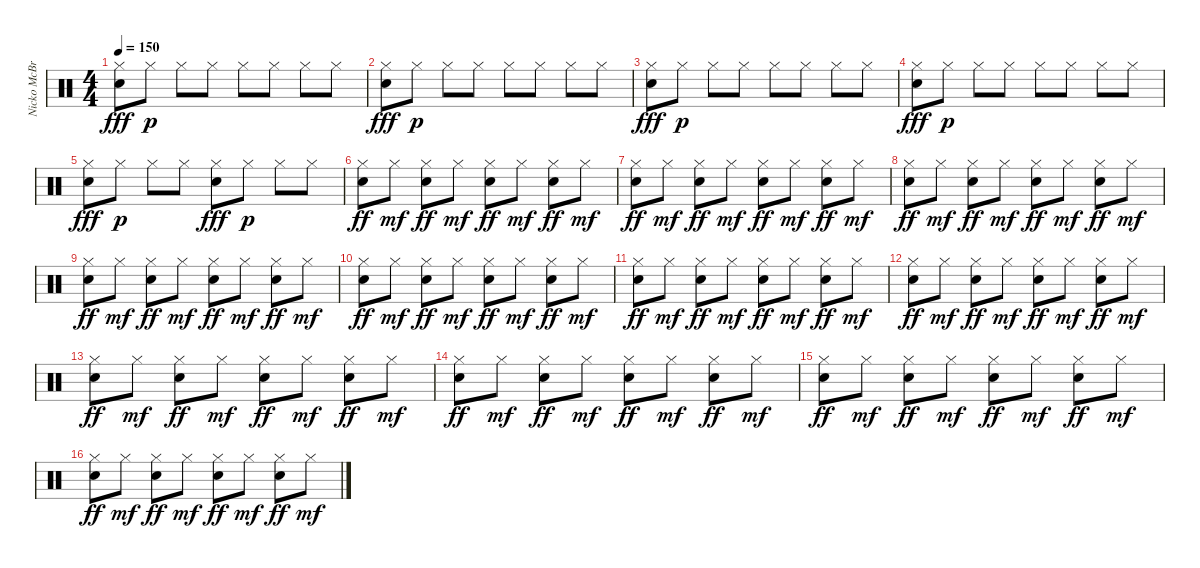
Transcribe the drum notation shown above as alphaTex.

\track ("Nicko McBrain" "Nicko McBr") {instrument percussion}
\staff {score}
\articulation defaults
\ts (4 4)
\tempo 150
\clef neutral
\ks c
("Hi-Hat (closed)" "Snare (hit) 2").8{dy fff} "Hi-Hat (closed)".8{dy p} "Hi-Hat (closed)".8 "Hi-Hat (closed)".8 "Hi-Hat (closed)".8 "Hi-Hat (closed)".8 "Hi-Hat (closed)".8 "Hi-Hat (closed)".8 |
("Hi-Hat (closed)" "Snare (hit) 2").8{dy fff} "Hi-Hat (closed)".8{dy p} "Hi-Hat (closed)".8 "Hi-Hat (closed)".8 "Hi-Hat (closed)".8 "Hi-Hat (closed)".8 "Hi-Hat (closed)".8 "Hi-Hat (closed)".8 |
("Hi-Hat (closed)" "Snare (hit) 2").8{dy fff} "Hi-Hat (closed)".8{dy p} "Hi-Hat (closed)".8 "Hi-Hat (closed)".8 "Hi-Hat (closed)".8 "Hi-Hat (closed)".8 "Hi-Hat (closed)".8 "Hi-Hat (closed)".8 |
("Hi-Hat (closed)" "Snare (hit) 2").8{dy fff} "Hi-Hat (closed)".8{dy p} "Hi-Hat (closed)".8 "Hi-Hat (closed)".8 "Hi-Hat (closed)".8 "Hi-Hat (closed)".8 "Hi-Hat (closed)".8 "Hi-Hat (closed)".8 |
("Hi-Hat (closed)" "Snare (hit) 2").8{dy fff} "Hi-Hat (closed)".8{dy p} "Hi-Hat (closed)".8 "Hi-Hat (closed)".8 ("Hi-Hat (closed)" "Snare (hit) 2").8{dy fff} "Hi-Hat (closed)".8{dy p} "Hi-Hat (closed)".8 "Hi-Hat (closed)".8 |
("Hi-Hat (closed)" "Snare (hit) 2").8{dy ff} "Hi-Hat (closed)".8{dy mf} ("Hi-Hat (closed)" "Snare (hit) 2").8{dy ff} "Hi-Hat (closed)".8{dy mf} ("Hi-Hat (closed)" "Snare (hit) 2").8{dy ff} "Hi-Hat (closed)".8{dy mf} ("Hi-Hat (closed)" "Snare (hit) 2").8{dy ff} "Hi-Hat (closed)".8{dy mf} |
("Hi-Hat (closed)" "Snare (hit) 2").8{dy ff} "Hi-Hat (closed)".8{dy mf} ("Hi-Hat (closed)" "Snare (hit) 2").8{dy ff} "Hi-Hat (closed)".8{dy mf} ("Hi-Hat (closed)" "Snare (hit) 2").8{dy ff} "Hi-Hat (closed)".8{dy mf} ("Hi-Hat (closed)" "Snare (hit) 2").8{dy ff} "Hi-Hat (closed)".8{dy mf} |
("Hi-Hat (closed)" "Snare (hit) 2").8{dy ff} "Hi-Hat (closed)".8{dy mf} ("Hi-Hat (closed)" "Snare (hit) 2").8{dy ff} "Hi-Hat (closed)".8{dy mf} ("Hi-Hat (closed)" "Snare (hit) 2").8{dy ff} "Hi-Hat (closed)".8{dy mf} ("Hi-Hat (closed)" "Snare (hit) 2").8{dy ff} "Hi-Hat (closed)".8{dy mf} |
("Hi-Hat (closed)" "Snare (hit) 2").8{dy ff} "Hi-Hat (closed)".8{dy mf} ("Hi-Hat (closed)" "Snare (hit) 2").8{dy ff} "Hi-Hat (closed)".8{dy mf} ("Hi-Hat (closed)" "Snare (hit) 2").8{dy ff} "Hi-Hat (closed)".8{dy mf} ("Hi-Hat (closed)" "Snare (hit) 2").8{dy ff} "Hi-Hat (closed)".8{dy mf} |
("Hi-Hat (closed)" "Snare (hit) 2").8{dy ff} "Hi-Hat (closed)".8{dy mf} ("Hi-Hat (closed)" "Snare (hit) 2").8{dy ff} "Hi-Hat (closed)".8{dy mf} ("Hi-Hat (closed)" "Snare (hit) 2").8{dy ff} "Hi-Hat (closed)".8{dy mf} ("Hi-Hat (closed)" "Snare (hit) 2").8{dy ff} "Hi-Hat (closed)".8{dy mf} |
("Hi-Hat (closed)" "Snare (hit) 2").8{dy ff} "Hi-Hat (closed)".8{dy mf} ("Hi-Hat (closed)" "Snare (hit) 2").8{dy ff} "Hi-Hat (closed)".8{dy mf} ("Hi-Hat (closed)" "Snare (hit) 2").8{dy ff} "Hi-Hat (closed)".8{dy mf} ("Hi-Hat (closed)" "Snare (hit) 2").8{dy ff} "Hi-Hat (closed)".8{dy mf} |
("Hi-Hat (closed)" "Snare (hit) 2").8{dy ff} "Hi-Hat (closed)".8{dy mf} ("Hi-Hat (closed)" "Snare (hit) 2").8{dy ff} "Hi-Hat (closed)".8{dy mf} ("Hi-Hat (closed)" "Snare (hit) 2").8{dy ff} "Hi-Hat (closed)".8{dy mf} ("Hi-Hat (closed)" "Snare (hit) 2").8{dy ff} "Hi-Hat (closed)".8{dy mf} |
("Hi-Hat (closed)" "Snare (hit) 2").8{dy ff} "Hi-Hat (closed)".8{dy mf} ("Hi-Hat (closed)" "Snare (hit) 2").8{dy ff} "Hi-Hat (closed)".8{dy mf} ("Hi-Hat (closed)" "Snare (hit) 2").8{dy ff} "Hi-Hat (closed)".8{dy mf} ("Hi-Hat (closed)" "Snare (hit) 2").8{dy ff} "Hi-Hat (closed)".8{dy mf} |
("Hi-Hat (closed)" "Snare (hit) 2").8{dy ff} "Hi-Hat (closed)".8{dy mf} ("Hi-Hat (closed)" "Snare (hit) 2").8{dy ff} "Hi-Hat (closed)".8{dy mf} ("Hi-Hat (closed)" "Snare (hit) 2").8{dy ff} "Hi-Hat (closed)".8{dy mf} ("Hi-Hat (closed)" "Snare (hit) 2").8{dy ff} "Hi-Hat (closed)".8{dy mf} |
("Hi-Hat (closed)" "Snare (hit) 2").8{dy ff} "Hi-Hat (closed)".8{dy mf} ("Hi-Hat (closed)" "Snare (hit) 2").8{dy ff} "Hi-Hat (closed)".8{dy mf} ("Hi-Hat (closed)" "Snare (hit) 2").8{dy ff} "Hi-Hat (closed)".8{dy mf} ("Hi-Hat (closed)" "Snare (hit) 2").8{dy ff} "Hi-Hat (closed)".8{dy mf} |
("Hi-Hat (closed)" "Snare (hit) 2").8{dy ff} "Hi-Hat (closed)".8{dy mf} ("Hi-Hat (closed)" "Snare (hit) 2").8{dy ff} "Hi-Hat (closed)".8{dy mf} ("Hi-Hat (closed)" "Snare (hit) 2").8{dy ff} "Hi-Hat (closed)".8{dy mf} ("Hi-Hat (closed)" "Snare (hit) 2").8{dy ff} "Hi-Hat (closed)".8{dy mf}
